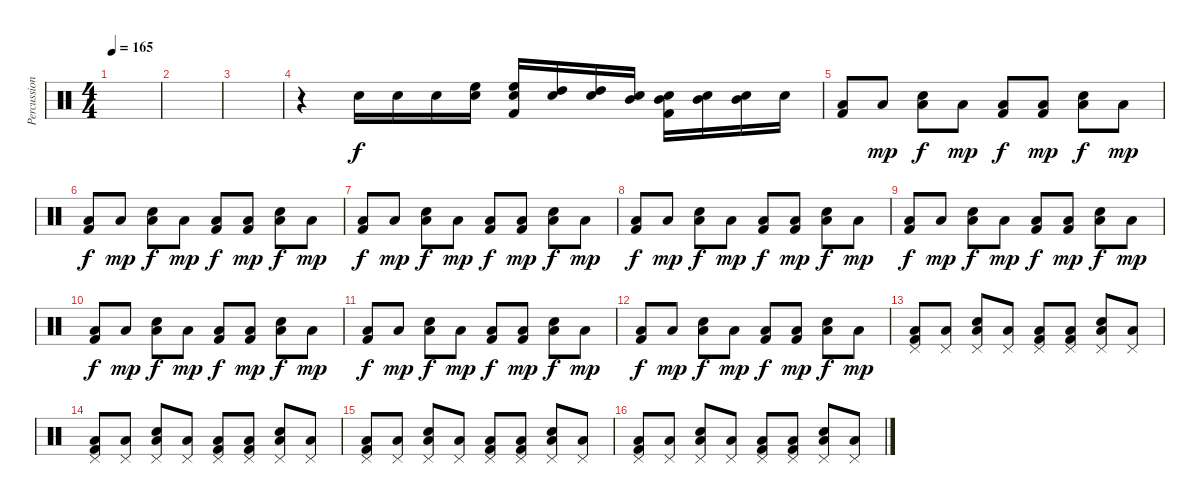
\track ("Percussion" "Percussion") {instrument percussion}
\staff {score}
\articulation defaults
\ts (4 4)
\tempo 165
\clef neutral
\ks c
|
|
|
r.4 "Electric Snare (hit)".16 "Electric Snare (hit)".16 "Electric Snare (hit)".16 ("Electric Snare (hit)" "High Floor Tom (hit)").16 ("Electric Snare (hit)" "Kick (hit) 2" "High Floor Tom (hit)").16 ("Electric Snare (hit)" "High Tom (hit)").16 ("Electric Snare (hit)" "High Tom (hit)").16 ("Electric Snare (hit)" "Mid Tom (hit)").16 ("Electric Snare (hit)" "Kick (hit) 2" "Mid Tom (hit)").16 ("Electric Snare (hit)" "Mid Tom (hit)").16 ("Electric Snare (hit)" "Mid Tom (hit)").16 "Electric Snare (hit)".16 |
("Low Floor Tom (hit)" "Kick (hit) 2").8 "Low Floor Tom (hit)".8{dy mp} ("Low Floor Tom (hit)" "Electric Snare (hit)").8{dy f} "Low Floor Tom (hit)".8{dy mp} ("Low Floor Tom (hit)" "Kick (hit) 2").8{dy f} ("Low Floor Tom (hit)" "Kick (hit) 2").8{dy mp} ("Low Floor Tom (hit)" "Electric Snare (hit)").8{dy f} "Low Floor Tom (hit)".8{dy mp} |
("Low Floor Tom (hit)" "Kick (hit) 2").8{dy f} "Low Floor Tom (hit)".8{dy mp} ("Low Floor Tom (hit)" "Electric Snare (hit)").8{dy f} "Low Floor Tom (hit)".8{dy mp} ("Low Floor Tom (hit)" "Kick (hit) 2").8{dy f} ("Low Floor Tom (hit)" "Kick (hit) 2").8{dy mp} ("Low Floor Tom (hit)" "Electric Snare (hit)").8{dy f} "Low Floor Tom (hit)".8{dy mp} |
("Low Floor Tom (hit)" "Kick (hit) 2").8{dy f} "Low Floor Tom (hit)".8{dy mp} ("Low Floor Tom (hit)" "Electric Snare (hit)").8{dy f} "Low Floor Tom (hit)".8{dy mp} ("Low Floor Tom (hit)" "Kick (hit) 2").8{dy f} ("Low Floor Tom (hit)" "Kick (hit) 2").8{dy mp} ("Low Floor Tom (hit)" "Electric Snare (hit)").8{dy f} "Low Floor Tom (hit)".8{dy mp} |
("Low Floor Tom (hit)" "Kick (hit) 2").8{dy f} "Low Floor Tom (hit)".8{dy mp} ("Low Floor Tom (hit)" "Electric Snare (hit)").8{dy f} "Low Floor Tom (hit)".8{dy mp} ("Low Floor Tom (hit)" "Kick (hit) 2").8{dy f} ("Low Floor Tom (hit)" "Kick (hit) 2").8{dy mp} ("Low Floor Tom (hit)" "Electric Snare (hit)").8{dy f} "Low Floor Tom (hit)".8{dy mp} |
("Low Floor Tom (hit)" "Kick (hit) 2").8{dy f} "Low Floor Tom (hit)".8{dy mp} ("Low Floor Tom (hit)" "Electric Snare (hit)").8{dy f} "Low Floor Tom (hit)".8{dy mp} ("Low Floor Tom (hit)" "Kick (hit) 2").8{dy f} ("Low Floor Tom (hit)" "Kick (hit) 2").8{dy mp} ("Low Floor Tom (hit)" "Electric Snare (hit)").8{dy f} "Low Floor Tom (hit)".8{dy mp} |
("Low Floor Tom (hit)" "Kick (hit) 2").8{dy f} "Low Floor Tom (hit)".8{dy mp} ("Low Floor Tom (hit)" "Electric Snare (hit)").8{dy f} "Low Floor Tom (hit)".8{dy mp} ("Low Floor Tom (hit)" "Kick (hit) 2").8{dy f} ("Low Floor Tom (hit)" "Kick (hit) 2").8{dy mp} ("Low Floor Tom (hit)" "Electric Snare (hit)").8{dy f} "Low Floor Tom (hit)".8{dy mp} |
("Low Floor Tom (hit)" "Kick (hit) 2").8{dy f} "Low Floor Tom (hit)".8{dy mp} ("Low Floor Tom (hit)" "Electric Snare (hit)").8{dy f} "Low Floor Tom (hit)".8{dy mp} ("Low Floor Tom (hit)" "Kick (hit) 2").8{dy f} ("Low Floor Tom (hit)" "Kick (hit) 2").8{dy mp} ("Low Floor Tom (hit)" "Electric Snare (hit)").8{dy f} "Low Floor Tom (hit)".8{dy mp} |
("Low Floor Tom (hit)" "Kick (hit) 2").8{dy f} "Low Floor Tom (hit)".8{dy mp} ("Low Floor Tom (hit)" "Electric Snare (hit)").8{dy f} "Low Floor Tom (hit)".8{dy mp} ("Low Floor Tom (hit)" "Kick (hit) 2").8{dy f} ("Low Floor Tom (hit)" "Kick (hit) 2").8{dy mp} ("Low Floor Tom (hit)" "Electric Snare (hit)").8{dy f} "Low Floor Tom (hit)".8{dy mp} |
("Low Floor Tom (hit)" "Kick (hit) 2" "Pedal Hi-Hat (hit)").8 ("Low Floor Tom (hit)" "Pedal Hi-Hat (hit)").8 ("Low Floor Tom (hit)" "Electric Snare (hit)" "Pedal Hi-Hat (hit)").8 ("Low Floor Tom (hit)" "Pedal Hi-Hat (hit)").8 ("Low Floor Tom (hit)" "Kick (hit) 2" "Pedal Hi-Hat (hit)").8 ("Low Floor Tom (hit)" "Kick (hit) 2" "Pedal Hi-Hat (hit)").8 ("Low Floor Tom (hit)" "Electric Snare (hit)" "Pedal Hi-Hat (hit)").8 ("Low Floor Tom (hit)" "Pedal Hi-Hat (hit)").8 |
("Low Floor Tom (hit)" "Kick (hit) 2" "Pedal Hi-Hat (hit)").8 ("Low Floor Tom (hit)" "Pedal Hi-Hat (hit)").8 ("Low Floor Tom (hit)" "Electric Snare (hit)" "Pedal Hi-Hat (hit)").8 ("Low Floor Tom (hit)" "Pedal Hi-Hat (hit)").8 ("Low Floor Tom (hit)" "Kick (hit) 2" "Pedal Hi-Hat (hit)").8 ("Low Floor Tom (hit)" "Kick (hit) 2" "Pedal Hi-Hat (hit)").8 ("Low Floor Tom (hit)" "Electric Snare (hit)" "Pedal Hi-Hat (hit)").8 ("Low Floor Tom (hit)" "Pedal Hi-Hat (hit)").8 |
("Low Floor Tom (hit)" "Kick (hit) 2" "Pedal Hi-Hat (hit)").8 ("Low Floor Tom (hit)" "Pedal Hi-Hat (hit)").8 ("Low Floor Tom (hit)" "Electric Snare (hit)" "Pedal Hi-Hat (hit)").8 ("Low Floor Tom (hit)" "Pedal Hi-Hat (hit)").8 ("Low Floor Tom (hit)" "Kick (hit) 2" "Pedal Hi-Hat (hit)").8 ("Low Floor Tom (hit)" "Kick (hit) 2" "Pedal Hi-Hat (hit)").8 ("Low Floor Tom (hit)" "Electric Snare (hit)" "Pedal Hi-Hat (hit)").8 ("Low Floor Tom (hit)" "Pedal Hi-Hat (hit)").8 |
("Low Floor Tom (hit)" "Kick (hit) 2" "Pedal Hi-Hat (hit)").8 ("Low Floor Tom (hit)" "Pedal Hi-Hat (hit)").8 ("Low Floor Tom (hit)" "Electric Snare (hit)" "Pedal Hi-Hat (hit)").8 ("Low Floor Tom (hit)" "Pedal Hi-Hat (hit)").8 ("Low Floor Tom (hit)" "Kick (hit) 2" "Pedal Hi-Hat (hit)").8 ("Low Floor Tom (hit)" "Kick (hit) 2" "Pedal Hi-Hat (hit)").8 ("Low Floor Tom (hit)" "Electric Snare (hit)" "Pedal Hi-Hat (hit)").8 ("Low Floor Tom (hit)" "Pedal Hi-Hat (hit)").8
